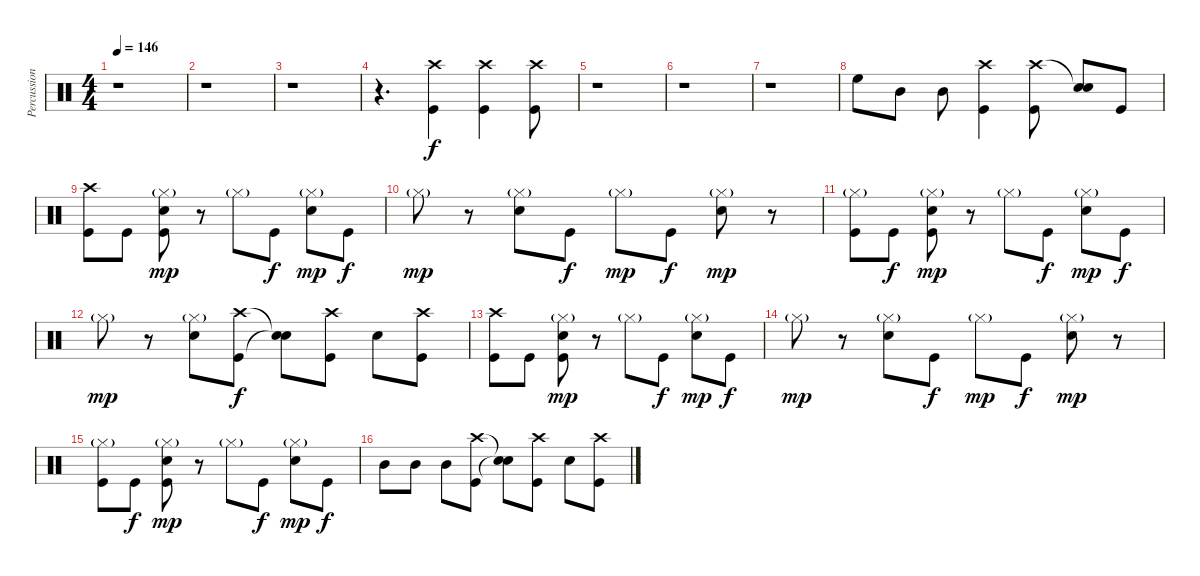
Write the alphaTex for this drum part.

\track ("Percussion" "Percussion") {instrument percussion}
\staff {score}
\articulation defaults
\ts (4 4)
\tempo 146
\clef neutral
\ks c
r.1{dy f} |
r.1 |
r.1 |
r.4{d} ("Crash high (hit)" "Kick (hit)").4 ("Crash high (hit)" "Kick (hit)").4 ("Crash high (hit)" "Kick (hit)").8 |
r.1 |
r.1 |
r.1 |
"High Floor Tom (hit)".8 "Mid Tom (hit)".8 "Mid Tom (hit)".8 ("Crash high (hit)" "Kick (hit)").4 ("Crash high (hit)" "Kick (hit)").8 ("Snare (hit)"{t} "Snare (hit) 2").8 "Kick (hit)".8 |
("Crash high (hit)" "Kick (hit)").8 "Kick (hit)".8 ("Hi-Hat (closed)"{g} "Snare (hit) 2" "Kick (hit)").8{dy mp} r.8 "Hi-Hat (closed)"{g}.8 "Kick (hit)".8{dy f} ("Hi-Hat (closed)"{g} "Snare (hit) 2").8{dy mp} "Kick (hit)".8{dy f} |
"Hi-Hat (closed)"{g}.8{dy mp} r.8 ("Hi-Hat (closed)"{g} "Snare (hit) 2").8 "Kick (hit)".8{dy f} "Hi-Hat (closed)"{g}.8{dy mp} "Kick (hit)".8{dy f} ("Hi-Hat (closed)"{g} "Snare (hit) 2").8{dy mp} r.8 |
("Hi-Hat (closed)"{g} "Kick (hit)").8 "Kick (hit)".8{dy f} ("Hi-Hat (closed)"{g} "Snare (hit) 2" "Kick (hit)").8{dy mp} r.8 "Hi-Hat (closed)"{g}.8 "Kick (hit)".8{dy f} ("Hi-Hat (closed)"{g} "Snare (hit) 2").8{dy mp} "Kick (hit)".8{dy f} |
"Hi-Hat (closed)"{g}.8{dy mp} r.8 ("Hi-Hat (closed)"{g} "Snare (hit) 2").8 ("Crash high (hit)" "Kick (hit)").8{dy f} ("Snare (hit)"{t} "Snare (hit)"{t}).8 ("Crash high (hit)" "Kick (hit)").8 "Snare (hit) 2".8 ("Crash high (hit)" "Kick (hit)").8 |
("Crash high (hit)" "Kick (hit)").8 "Kick (hit)".8 ("Hi-Hat (closed)"{g} "Snare (hit) 2" "Kick (hit)").8{dy mp} r.8 "Hi-Hat (closed)"{g}.8 "Kick (hit)".8{dy f} ("Hi-Hat (closed)"{g} "Snare (hit) 2").8{dy mp} "Kick (hit)".8{dy f} |
"Hi-Hat (closed)"{g}.8{dy mp} r.8 ("Hi-Hat (closed)"{g} "Snare (hit) 2").8 "Kick (hit)".8{dy f} "Hi-Hat (closed)"{g}.8{dy mp} "Kick (hit)".8{dy f} ("Hi-Hat (closed)"{g} "Snare (hit) 2").8{dy mp} r.8 |
("Hi-Hat (closed)"{g} "Kick (hit)").8 "Kick (hit)".8{dy f} ("Hi-Hat (closed)"{g} "Snare (hit) 2" "Kick (hit)").8{dy mp} r.8 "Hi-Hat (closed)"{g}.8 "Kick (hit)".8{dy f} ("Hi-Hat (closed)"{g} "Snare (hit) 2").8{dy mp} "Kick (hit)".8{dy f} |
"Mid Tom (hit)".8 "Mid Tom (hit)".8 "Mid Tom (hit)".8 ("Crash high (hit)" "Kick (hit)").8 ("Snare (hit)"{t} "Snare (hit)"{t}).8 ("Crash high (hit)" "Kick (hit)").8 "Snare (hit) 2".8 ("Crash high (hit)" "Kick (hit)").8
